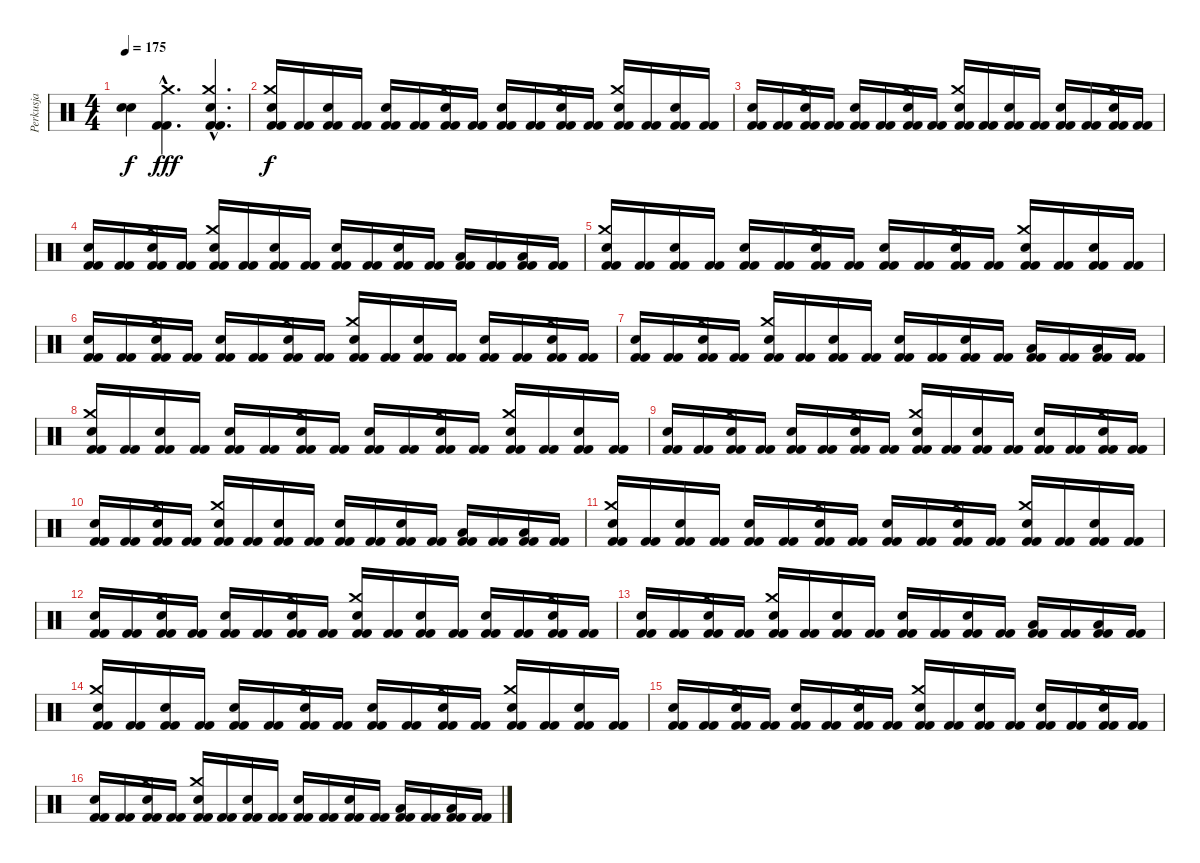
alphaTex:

\track ("Perkusja" "Perkusja") {instrument percussion}
\staff {score}
\articulation defaults
\ts (4 4)
\tempo 175
\clef neutral
\ks c
("Snare (hit)"{t} "Snare (hit)"{t}).4{dy f} ("Crash medium (hit)"{hac} "Kick (hit) 2"{tr (36 16) hac} "Kick (hit) 2"{hac}).4{d dy fff} ("Crash medium (hit)"{hac} "Snare (hit) 2"{hac} "Kick (hit) 2"{tr (36 16) hac} "Kick (hit) 2"{hac}).4{d} |
("Crash medium (hit)" "Snare (hit) 2" "Kick (hit) 2" "Kick (hit) 2").16{dy f} ("Kick (hit) 2" "Kick (hit) 2").16 ("Snare (hit) 2" "Kick (hit) 2" "Kick (hit) 2").16 ("Kick (hit) 2" "Kick (hit) 2").16 ("Snare (hit) 2" "Kick (hit) 2" "Kick (hit) 2").16 ("Kick (hit) 2" "Kick (hit) 2").16 ("Crash medium (hit)" "Snare (hit) 2" "Kick (hit) 2" "Kick (hit) 2").16 ("Kick (hit) 2" "Kick (hit) 2").16 ("Snare (hit) 2" "Kick (hit) 2" "Kick (hit) 2").16 ("Kick (hit) 2" "Kick (hit) 2").16 ("Crash medium (hit)" "Snare (hit) 2" "Kick (hit) 2" "Kick (hit) 2").16 ("Kick (hit) 2" "Kick (hit) 2").16 ("Crash medium (hit)" "Snare (hit) 2" "Kick (hit) 2" "Kick (hit) 2").16 ("Kick (hit) 2" "Kick (hit) 2").16 ("Snare (hit) 2" "Kick (hit) 2" "Kick (hit) 2").16 ("Kick (hit) 2" "Kick (hit) 2").16 |
("Snare (hit) 2" "Kick (hit) 2" "Kick (hit) 2").16 ("Kick (hit) 2" "Kick (hit) 2").16 ("Crash medium (hit)" "Snare (hit) 2" "Kick (hit) 2" "Kick (hit) 2").16 ("Kick (hit) 2" "Kick (hit) 2").16 ("Snare (hit) 2" "Kick (hit) 2" "Kick (hit) 2").16 ("Kick (hit) 2" "Kick (hit) 2").16 ("Crash medium (hit)" "Snare (hit) 2" "Kick (hit) 2" "Kick (hit) 2").16 ("Kick (hit) 2" "Kick (hit) 2").16 ("Crash medium (hit)" "Snare (hit) 2" "Kick (hit) 2" "Kick (hit) 2").16 ("Kick (hit) 2" "Kick (hit) 2").16 ("Snare (hit) 2" "Kick (hit) 2" "Kick (hit) 2").16 ("Kick (hit) 2" "Kick (hit) 2").16 ("Snare (hit) 2" "Kick (hit) 2" "Kick (hit) 2").16 ("Kick (hit) 2" "Kick (hit) 2").16 ("Crash medium (hit)" "Snare (hit) 2" "Kick (hit) 2" "Kick (hit) 2").16 ("Kick (hit) 2" "Kick (hit) 2").16 |
("Snare (hit) 2" "Kick (hit) 2" "Kick (hit) 2").16 ("Kick (hit) 2" "Kick (hit) 2").16 ("Crash medium (hit)" "Snare (hit) 2" "Kick (hit) 2" "Kick (hit) 2").16 ("Kick (hit) 2" "Kick (hit) 2").16 ("Crash medium (hit)" "Snare (hit) 2" "Kick (hit) 2" "Kick (hit) 2").16 ("Kick (hit) 2" "Kick (hit) 2").16 ("Snare (hit) 2" "Kick (hit) 2" "Kick (hit) 2").16 ("Kick (hit) 2" "Kick (hit) 2").16 ("Electric Snare (hit)" "Kick (hit) 2" "Kick (hit) 2").16 ("Kick (hit) 2" "Kick (hit) 2").16 ("Electric Snare (hit)" "Kick (hit) 2" "Kick (hit) 2").16 ("Kick (hit) 2" "Kick (hit) 2").16 ("Low Tom (hit)" "Kick (hit) 2" "Kick (hit) 2").16 ("Kick (hit) 2" "Kick (hit) 2").16 ("Low Tom (hit)" "Kick (hit) 2" "Kick (hit) 2").16 ("Kick (hit) 2" "Kick (hit) 2").16 |
("Crash medium (hit)" "Snare (hit) 2" "Kick (hit) 2" "Kick (hit) 2").16 ("Kick (hit) 2" "Kick (hit) 2").16 ("Snare (hit) 2" "Kick (hit) 2" "Kick (hit) 2").16 ("Kick (hit) 2" "Kick (hit) 2").16 ("Snare (hit) 2" "Kick (hit) 2" "Kick (hit) 2").16 ("Kick (hit) 2" "Kick (hit) 2").16 ("Crash medium (hit)" "Snare (hit) 2" "Kick (hit) 2" "Kick (hit) 2").16 ("Kick (hit) 2" "Kick (hit) 2").16 ("Snare (hit) 2" "Kick (hit) 2" "Kick (hit) 2").16 ("Kick (hit) 2" "Kick (hit) 2").16 ("Crash medium (hit)" "Snare (hit) 2" "Kick (hit) 2" "Kick (hit) 2").16 ("Kick (hit) 2" "Kick (hit) 2").16 ("Crash medium (hit)" "Snare (hit) 2" "Kick (hit) 2" "Kick (hit) 2").16 ("Kick (hit) 2" "Kick (hit) 2").16 ("Snare (hit) 2" "Kick (hit) 2" "Kick (hit) 2").16 ("Kick (hit) 2" "Kick (hit) 2").16 |
("Snare (hit) 2" "Kick (hit) 2" "Kick (hit) 2").16 ("Kick (hit) 2" "Kick (hit) 2").16 ("Crash medium (hit)" "Snare (hit) 2" "Kick (hit) 2" "Kick (hit) 2").16 ("Kick (hit) 2" "Kick (hit) 2").16 ("Snare (hit) 2" "Kick (hit) 2" "Kick (hit) 2").16 ("Kick (hit) 2" "Kick (hit) 2").16 ("Crash medium (hit)" "Snare (hit) 2" "Kick (hit) 2" "Kick (hit) 2").16 ("Kick (hit) 2" "Kick (hit) 2").16 ("Crash medium (hit)" "Snare (hit) 2" "Kick (hit) 2" "Kick (hit) 2").16 ("Kick (hit) 2" "Kick (hit) 2").16 ("Snare (hit) 2" "Kick (hit) 2" "Kick (hit) 2").16 ("Kick (hit) 2" "Kick (hit) 2").16 ("Snare (hit) 2" "Kick (hit) 2" "Kick (hit) 2").16 ("Kick (hit) 2" "Kick (hit) 2").16 ("Crash medium (hit)" "Snare (hit) 2" "Kick (hit) 2" "Kick (hit) 2").16 ("Kick (hit) 2" "Kick (hit) 2").16 |
("Snare (hit) 2" "Kick (hit) 2" "Kick (hit) 2").16 ("Kick (hit) 2" "Kick (hit) 2").16 ("Crash medium (hit)" "Snare (hit) 2" "Kick (hit) 2" "Kick (hit) 2").16 ("Kick (hit) 2" "Kick (hit) 2").16 ("Crash medium (hit)" "Snare (hit) 2" "Kick (hit) 2" "Kick (hit) 2").16 ("Kick (hit) 2" "Kick (hit) 2").16 ("Snare (hit) 2" "Kick (hit) 2" "Kick (hit) 2").16 ("Kick (hit) 2" "Kick (hit) 2").16 ("Electric Snare (hit)" "Kick (hit) 2" "Kick (hit) 2").16 ("Kick (hit) 2" "Kick (hit) 2").16 ("Electric Snare (hit)" "Kick (hit) 2" "Kick (hit) 2").16 ("Kick (hit) 2" "Kick (hit) 2").16 ("Low Tom (hit)" "Kick (hit) 2" "Kick (hit) 2").16 ("Kick (hit) 2" "Kick (hit) 2").16 ("Low Tom (hit)" "Kick (hit) 2" "Kick (hit) 2").16 ("Kick (hit) 2" "Kick (hit) 2").16 |
("Crash medium (hit)" "Snare (hit) 2" "Kick (hit) 2" "Kick (hit) 2").16 ("Kick (hit) 2" "Kick (hit) 2").16 ("Snare (hit) 2" "Kick (hit) 2" "Kick (hit) 2").16 ("Kick (hit) 2" "Kick (hit) 2").16 ("Snare (hit) 2" "Kick (hit) 2" "Kick (hit) 2").16 ("Kick (hit) 2" "Kick (hit) 2").16 ("Crash medium (hit)" "Snare (hit) 2" "Kick (hit) 2" "Kick (hit) 2").16 ("Kick (hit) 2" "Kick (hit) 2").16 ("Snare (hit) 2" "Kick (hit) 2" "Kick (hit) 2").16 ("Kick (hit) 2" "Kick (hit) 2").16 ("Crash medium (hit)" "Snare (hit) 2" "Kick (hit) 2" "Kick (hit) 2").16 ("Kick (hit) 2" "Kick (hit) 2").16 ("Crash medium (hit)" "Snare (hit) 2" "Kick (hit) 2" "Kick (hit) 2").16 ("Kick (hit) 2" "Kick (hit) 2").16 ("Snare (hit) 2" "Kick (hit) 2" "Kick (hit) 2").16 ("Kick (hit) 2" "Kick (hit) 2").16 |
("Snare (hit) 2" "Kick (hit) 2" "Kick (hit) 2").16 ("Kick (hit) 2" "Kick (hit) 2").16 ("Crash medium (hit)" "Snare (hit) 2" "Kick (hit) 2" "Kick (hit) 2").16 ("Kick (hit) 2" "Kick (hit) 2").16 ("Snare (hit) 2" "Kick (hit) 2" "Kick (hit) 2").16 ("Kick (hit) 2" "Kick (hit) 2").16 ("Crash medium (hit)" "Snare (hit) 2" "Kick (hit) 2" "Kick (hit) 2").16 ("Kick (hit) 2" "Kick (hit) 2").16 ("Crash medium (hit)" "Snare (hit) 2" "Kick (hit) 2" "Kick (hit) 2").16 ("Kick (hit) 2" "Kick (hit) 2").16 ("Snare (hit) 2" "Kick (hit) 2" "Kick (hit) 2").16 ("Kick (hit) 2" "Kick (hit) 2").16 ("Snare (hit) 2" "Kick (hit) 2" "Kick (hit) 2").16 ("Kick (hit) 2" "Kick (hit) 2").16 ("Crash medium (hit)" "Snare (hit) 2" "Kick (hit) 2" "Kick (hit) 2").16 ("Kick (hit) 2" "Kick (hit) 2").16 |
("Snare (hit) 2" "Kick (hit) 2" "Kick (hit) 2").16 ("Kick (hit) 2" "Kick (hit) 2").16 ("Crash medium (hit)" "Snare (hit) 2" "Kick (hit) 2" "Kick (hit) 2").16 ("Kick (hit) 2" "Kick (hit) 2").16 ("Crash medium (hit)" "Snare (hit) 2" "Kick (hit) 2" "Kick (hit) 2").16 ("Kick (hit) 2" "Kick (hit) 2").16 ("Snare (hit) 2" "Kick (hit) 2" "Kick (hit) 2").16 ("Kick (hit) 2" "Kick (hit) 2").16 ("Electric Snare (hit)" "Kick (hit) 2" "Kick (hit) 2").16 ("Kick (hit) 2" "Kick (hit) 2").16 ("Electric Snare (hit)" "Kick (hit) 2" "Kick (hit) 2").16 ("Kick (hit) 2" "Kick (hit) 2").16 ("Low Tom (hit)" "Kick (hit) 2" "Kick (hit) 2").16 ("Kick (hit) 2" "Kick (hit) 2").16 ("Low Tom (hit)" "Kick (hit) 2" "Kick (hit) 2").16 ("Kick (hit) 2" "Kick (hit) 2").16 |
("Crash medium (hit)" "Snare (hit) 2" "Kick (hit) 2" "Kick (hit) 2").16 ("Kick (hit) 2" "Kick (hit) 2").16 ("Snare (hit) 2" "Kick (hit) 2" "Kick (hit) 2").16 ("Kick (hit) 2" "Kick (hit) 2").16 ("Snare (hit) 2" "Kick (hit) 2" "Kick (hit) 2").16 ("Kick (hit) 2" "Kick (hit) 2").16 ("Crash medium (hit)" "Snare (hit) 2" "Kick (hit) 2" "Kick (hit) 2").16 ("Kick (hit) 2" "Kick (hit) 2").16 ("Snare (hit) 2" "Kick (hit) 2" "Kick (hit) 2").16 ("Kick (hit) 2" "Kick (hit) 2").16 ("Crash medium (hit)" "Snare (hit) 2" "Kick (hit) 2" "Kick (hit) 2").16 ("Kick (hit) 2" "Kick (hit) 2").16 ("Crash medium (hit)" "Snare (hit) 2" "Kick (hit) 2" "Kick (hit) 2").16 ("Kick (hit) 2" "Kick (hit) 2").16 ("Snare (hit) 2" "Kick (hit) 2" "Kick (hit) 2").16 ("Kick (hit) 2" "Kick (hit) 2").16 |
("Snare (hit) 2" "Kick (hit) 2" "Kick (hit) 2").16 ("Kick (hit) 2" "Kick (hit) 2").16 ("Crash medium (hit)" "Snare (hit) 2" "Kick (hit) 2" "Kick (hit) 2").16 ("Kick (hit) 2" "Kick (hit) 2").16 ("Snare (hit) 2" "Kick (hit) 2" "Kick (hit) 2").16 ("Kick (hit) 2" "Kick (hit) 2").16 ("Crash medium (hit)" "Snare (hit) 2" "Kick (hit) 2" "Kick (hit) 2").16 ("Kick (hit) 2" "Kick (hit) 2").16 ("Crash medium (hit)" "Snare (hit) 2" "Kick (hit) 2" "Kick (hit) 2").16 ("Kick (hit) 2" "Kick (hit) 2").16 ("Snare (hit) 2" "Kick (hit) 2" "Kick (hit) 2").16 ("Kick (hit) 2" "Kick (hit) 2").16 ("Snare (hit) 2" "Kick (hit) 2" "Kick (hit) 2").16 ("Kick (hit) 2" "Kick (hit) 2").16 ("Crash medium (hit)" "Snare (hit) 2" "Kick (hit) 2" "Kick (hit) 2").16 ("Kick (hit) 2" "Kick (hit) 2").16 |
("Snare (hit) 2" "Kick (hit) 2" "Kick (hit) 2").16 ("Kick (hit) 2" "Kick (hit) 2").16 ("Crash medium (hit)" "Snare (hit) 2" "Kick (hit) 2" "Kick (hit) 2").16 ("Kick (hit) 2" "Kick (hit) 2").16 ("Crash medium (hit)" "Snare (hit) 2" "Kick (hit) 2" "Kick (hit) 2").16 ("Kick (hit) 2" "Kick (hit) 2").16 ("Snare (hit) 2" "Kick (hit) 2" "Kick (hit) 2").16 ("Kick (hit) 2" "Kick (hit) 2").16 ("Electric Snare (hit)" "Kick (hit) 2" "Kick (hit) 2").16 ("Kick (hit) 2" "Kick (hit) 2").16 ("Electric Snare (hit)" "Kick (hit) 2" "Kick (hit) 2").16 ("Kick (hit) 2" "Kick (hit) 2").16 ("Low Tom (hit)" "Kick (hit) 2" "Kick (hit) 2").16 ("Kick (hit) 2" "Kick (hit) 2").16 ("Low Tom (hit)" "Kick (hit) 2" "Kick (hit) 2").16 ("Kick (hit) 2" "Kick (hit) 2").16 |
("Crash medium (hit)" "Snare (hit) 2" "Kick (hit) 2" "Kick (hit) 2").16 ("Kick (hit) 2" "Kick (hit) 2").16 ("Snare (hit) 2" "Kick (hit) 2" "Kick (hit) 2").16 ("Kick (hit) 2" "Kick (hit) 2").16 ("Snare (hit) 2" "Kick (hit) 2" "Kick (hit) 2").16 ("Kick (hit) 2" "Kick (hit) 2").16 ("Crash medium (hit)" "Snare (hit) 2" "Kick (hit) 2" "Kick (hit) 2").16 ("Kick (hit) 2" "Kick (hit) 2").16 ("Snare (hit) 2" "Kick (hit) 2" "Kick (hit) 2").16 ("Kick (hit) 2" "Kick (hit) 2").16 ("Crash medium (hit)" "Snare (hit) 2" "Kick (hit) 2" "Kick (hit) 2").16 ("Kick (hit) 2" "Kick (hit) 2").16 ("Crash medium (hit)" "Snare (hit) 2" "Kick (hit) 2" "Kick (hit) 2").16 ("Kick (hit) 2" "Kick (hit) 2").16 ("Snare (hit) 2" "Kick (hit) 2" "Kick (hit) 2").16 ("Kick (hit) 2" "Kick (hit) 2").16 |
("Snare (hit) 2" "Kick (hit) 2" "Kick (hit) 2").16 ("Kick (hit) 2" "Kick (hit) 2").16 ("Crash medium (hit)" "Snare (hit) 2" "Kick (hit) 2" "Kick (hit) 2").16 ("Kick (hit) 2" "Kick (hit) 2").16 ("Snare (hit) 2" "Kick (hit) 2" "Kick (hit) 2").16 ("Kick (hit) 2" "Kick (hit) 2").16 ("Crash medium (hit)" "Snare (hit) 2" "Kick (hit) 2" "Kick (hit) 2").16 ("Kick (hit) 2" "Kick (hit) 2").16 ("Crash medium (hit)" "Snare (hit) 2" "Kick (hit) 2" "Kick (hit) 2").16 ("Kick (hit) 2" "Kick (hit) 2").16 ("Snare (hit) 2" "Kick (hit) 2" "Kick (hit) 2").16 ("Kick (hit) 2" "Kick (hit) 2").16 ("Snare (hit) 2" "Kick (hit) 2" "Kick (hit) 2").16 ("Kick (hit) 2" "Kick (hit) 2").16 ("Crash medium (hit)" "Snare (hit) 2" "Kick (hit) 2" "Kick (hit) 2").16 ("Kick (hit) 2" "Kick (hit) 2").16 |
("Snare (hit) 2" "Kick (hit) 2" "Kick (hit) 2").16 ("Kick (hit) 2" "Kick (hit) 2").16 ("Crash medium (hit)" "Snare (hit) 2" "Kick (hit) 2" "Kick (hit) 2").16 ("Kick (hit) 2" "Kick (hit) 2").16 ("Crash medium (hit)" "Snare (hit) 2" "Kick (hit) 2" "Kick (hit) 2").16 ("Kick (hit) 2" "Kick (hit) 2").16 ("Snare (hit) 2" "Kick (hit) 2" "Kick (hit) 2").16 ("Kick (hit) 2" "Kick (hit) 2").16 ("Electric Snare (hit)" "Kick (hit) 2" "Kick (hit) 2").16 ("Kick (hit) 2" "Kick (hit) 2").16 ("Electric Snare (hit)" "Kick (hit) 2" "Kick (hit) 2").16 ("Kick (hit) 2" "Kick (hit) 2").16 ("Low Tom (hit)" "Kick (hit) 2" "Kick (hit) 2").16 ("Kick (hit) 2" "Kick (hit) 2").16 ("Low Tom (hit)" "Kick (hit) 2" "Kick (hit) 2").16 ("Kick (hit) 2" "Kick (hit) 2").16
